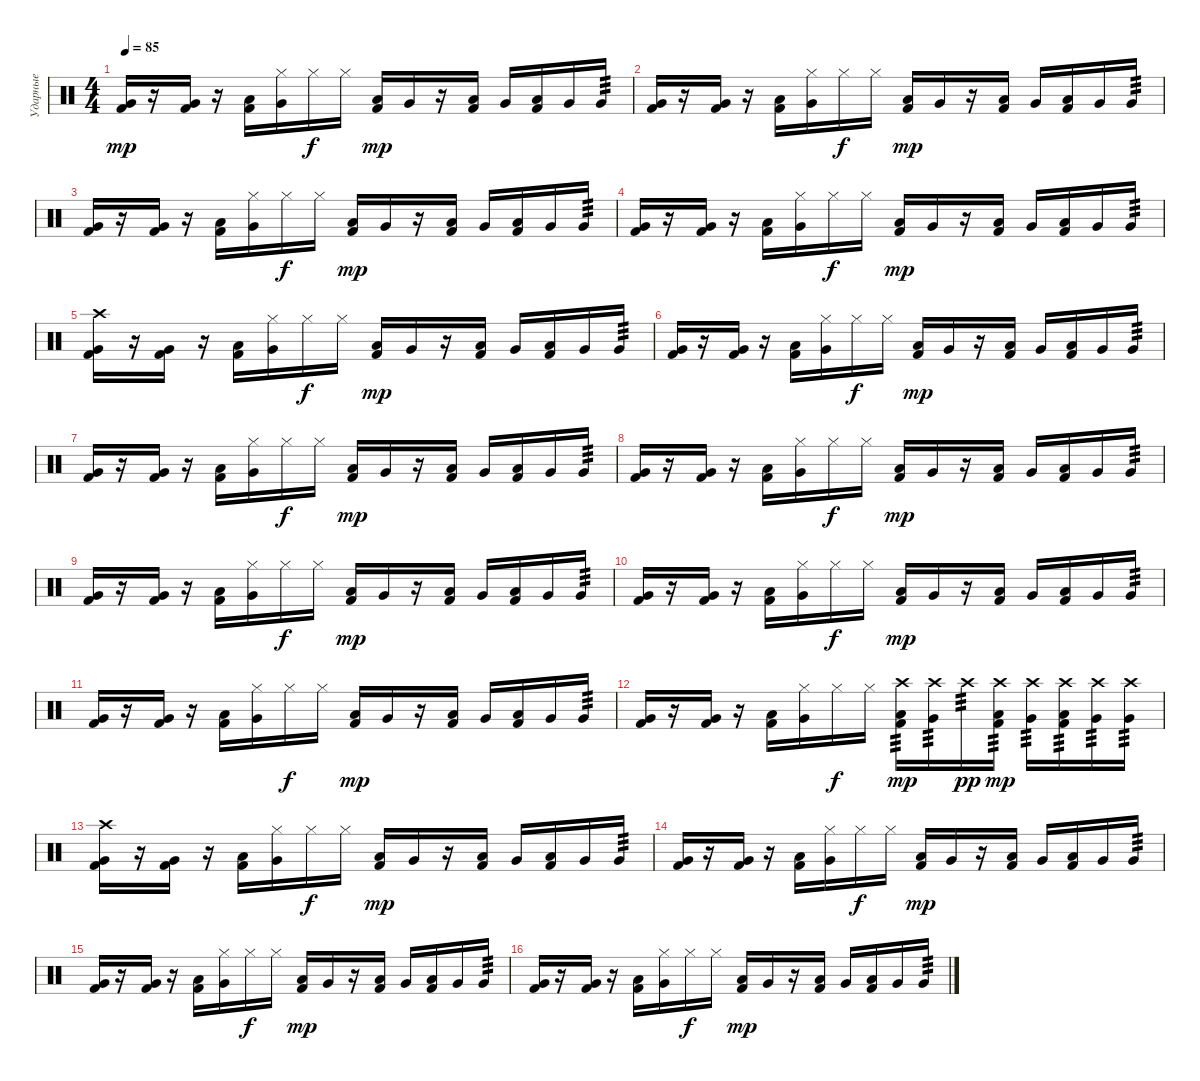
\track ("Ударные" "Ударные") {instrument percussion}
\staff {score}
\articulation defaults
\ts (4 4)
\tempo 85
\clef neutral
\ks c
("Very Low Tom (hit)" "Kick (hit) 2").16{dy mp} r.16 ("Very Low Tom (hit)" "Kick (hit) 2").16 r.16 ("Low Tom (hit)" "Kick (hit) 2").16 ("Hi-Hat (closed)" "Very Low Tom (hit)").16 "Hi-Hat (closed)".16{dy f} "Hi-Hat (closed)".16 ("Low Tom (hit)" "Kick (hit) 2").16{dy mp} "Very Low Tom (hit)".16 r.16 ("Low Tom (hit)" "Kick (hit) 2").16 "Very Low Tom (hit)".16 ("Low Tom (hit)" "Kick (hit) 2").16 "Very Low Tom (hit)".16 "Very Low Tom (hit)".16{tp 3} |
("Very Low Tom (hit)" "Kick (hit) 2").16 r.16 ("Very Low Tom (hit)" "Kick (hit) 2").16 r.16 ("Low Tom (hit)" "Kick (hit) 2").16 ("Hi-Hat (closed)" "Very Low Tom (hit)").16 "Hi-Hat (closed)".16{dy f} "Hi-Hat (closed)".16 ("Low Tom (hit)" "Kick (hit) 2").16{dy mp} "Very Low Tom (hit)".16 r.16 ("Low Tom (hit)" "Kick (hit) 2").16 "Very Low Tom (hit)".16 ("Low Tom (hit)" "Kick (hit) 2").16 "Very Low Tom (hit)".16 "Very Low Tom (hit)".16{tp 3} |
("Very Low Tom (hit)" "Kick (hit) 2").16 r.16 ("Very Low Tom (hit)" "Kick (hit) 2").16 r.16 ("Low Tom (hit)" "Kick (hit) 2").16 ("Hi-Hat (closed)" "Very Low Tom (hit)").16 "Hi-Hat (closed)".16{dy f} "Hi-Hat (closed)".16 ("Low Tom (hit)" "Kick (hit) 2").16{dy mp} "Very Low Tom (hit)".16 r.16 ("Low Tom (hit)" "Kick (hit) 2").16 "Very Low Tom (hit)".16 ("Low Tom (hit)" "Kick (hit) 2").16 "Very Low Tom (hit)".16 "Very Low Tom (hit)".16{tp 3} |
("Very Low Tom (hit)" "Kick (hit) 2").16 r.16 ("Very Low Tom (hit)" "Kick (hit) 2").16 r.16 ("Low Tom (hit)" "Kick (hit) 2").16 ("Hi-Hat (closed)" "Very Low Tom (hit)").16 "Hi-Hat (closed)".16{dy f} "Hi-Hat (closed)".16 ("Low Tom (hit)" "Kick (hit) 2").16{dy mp} "Very Low Tom (hit)".16 r.16 ("Low Tom (hit)" "Kick (hit) 2").16 "Very Low Tom (hit)".16 ("Low Tom (hit)" "Kick (hit) 2").16 "Very Low Tom (hit)".16 "Very Low Tom (hit)".16{tp 3} |
("Crash high (hit)" "Very Low Tom (hit)" "Kick (hit) 2").16 r.16 ("Very Low Tom (hit)" "Kick (hit) 2").16 r.16 ("Low Tom (hit)" "Kick (hit) 2").16 ("Hi-Hat (closed)" "Very Low Tom (hit)").16 "Hi-Hat (closed)".16{dy f} "Hi-Hat (closed)".16 ("Low Tom (hit)" "Kick (hit) 2").16{dy mp} "Very Low Tom (hit)".16 r.16 ("Low Tom (hit)" "Kick (hit) 2").16 "Very Low Tom (hit)".16 ("Low Tom (hit)" "Kick (hit) 2").16 "Very Low Tom (hit)".16 "Very Low Tom (hit)".16{tp 3} |
("Very Low Tom (hit)" "Kick (hit) 2").16 r.16 ("Very Low Tom (hit)" "Kick (hit) 2").16 r.16 ("Low Tom (hit)" "Kick (hit) 2").16 ("Hi-Hat (closed)" "Very Low Tom (hit)").16 "Hi-Hat (closed)".16{dy f} "Hi-Hat (closed)".16 ("Low Tom (hit)" "Kick (hit) 2").16{dy mp} "Very Low Tom (hit)".16 r.16 ("Low Tom (hit)" "Kick (hit) 2").16 "Very Low Tom (hit)".16 ("Low Tom (hit)" "Kick (hit) 2").16 "Very Low Tom (hit)".16 "Very Low Tom (hit)".16{tp 3} |
("Very Low Tom (hit)" "Kick (hit) 2").16 r.16 ("Very Low Tom (hit)" "Kick (hit) 2").16 r.16 ("Low Tom (hit)" "Kick (hit) 2").16 ("Hi-Hat (closed)" "Very Low Tom (hit)").16 "Hi-Hat (closed)".16{dy f} "Hi-Hat (closed)".16 ("Low Tom (hit)" "Kick (hit) 2").16{dy mp} "Very Low Tom (hit)".16 r.16 ("Low Tom (hit)" "Kick (hit) 2").16 "Very Low Tom (hit)".16 ("Low Tom (hit)" "Kick (hit) 2").16 "Very Low Tom (hit)".16 "Very Low Tom (hit)".16{tp 3} |
("Very Low Tom (hit)" "Kick (hit) 2").16 r.16 ("Very Low Tom (hit)" "Kick (hit) 2").16 r.16 ("Low Tom (hit)" "Kick (hit) 2").16 ("Hi-Hat (closed)" "Very Low Tom (hit)").16 "Hi-Hat (closed)".16{dy f} "Hi-Hat (closed)".16 ("Low Tom (hit)" "Kick (hit) 2").16{dy mp} "Very Low Tom (hit)".16 r.16 ("Low Tom (hit)" "Kick (hit) 2").16 "Very Low Tom (hit)".16 ("Low Tom (hit)" "Kick (hit) 2").16 "Very Low Tom (hit)".16 "Very Low Tom (hit)".16{tp 3} |
("Very Low Tom (hit)" "Kick (hit) 2").16 r.16 ("Very Low Tom (hit)" "Kick (hit) 2").16 r.16 ("Low Tom (hit)" "Kick (hit) 2").16 ("Hi-Hat (closed)" "Very Low Tom (hit)").16 "Hi-Hat (closed)".16{dy f} "Hi-Hat (closed)".16 ("Low Tom (hit)" "Kick (hit) 2").16{dy mp} "Very Low Tom (hit)".16 r.16 ("Low Tom (hit)" "Kick (hit) 2").16 "Very Low Tom (hit)".16 ("Low Tom (hit)" "Kick (hit) 2").16 "Very Low Tom (hit)".16 "Very Low Tom (hit)".16{tp 3} |
("Very Low Tom (hit)" "Kick (hit) 2").16 r.16 ("Very Low Tom (hit)" "Kick (hit) 2").16 r.16 ("Low Tom (hit)" "Kick (hit) 2").16 ("Hi-Hat (closed)" "Very Low Tom (hit)").16 "Hi-Hat (closed)".16{dy f} "Hi-Hat (closed)".16 ("Low Tom (hit)" "Kick (hit) 2").16{dy mp} "Very Low Tom (hit)".16 r.16 ("Low Tom (hit)" "Kick (hit) 2").16 "Very Low Tom (hit)".16 ("Low Tom (hit)" "Kick (hit) 2").16 "Very Low Tom (hit)".16 "Very Low Tom (hit)".16{tp 3} |
("Very Low Tom (hit)" "Kick (hit) 2").16 r.16 ("Very Low Tom (hit)" "Kick (hit) 2").16 r.16 ("Low Tom (hit)" "Kick (hit) 2").16 ("Hi-Hat (closed)" "Very Low Tom (hit)").16 "Hi-Hat (closed)".16{dy f} "Hi-Hat (closed)".16 ("Low Tom (hit)" "Kick (hit) 2").16{dy mp} "Very Low Tom (hit)".16 r.16 ("Low Tom (hit)" "Kick (hit) 2").16 "Very Low Tom (hit)".16 ("Low Tom (hit)" "Kick (hit) 2").16 "Very Low Tom (hit)".16 "Very Low Tom (hit)".16{tp 3} |
("Very Low Tom (hit)" "Kick (hit) 2").16 r.16 ("Very Low Tom (hit)" "Kick (hit) 2").16 r.16 ("Low Tom (hit)" "Kick (hit) 2").16 ("Hi-Hat (closed)" "Very Low Tom (hit)").16 "Hi-Hat (closed)".16{dy f} "Hi-Hat (closed)".16 ("Crash high (hit)" "Low Tom (hit)" "Kick (hit) 2").16{tp 3 dy mp} ("Crash high (hit)" "Very Low Tom (hit)").16{tp 3} "Crash high (hit)".16{tp 3 dy pp} ("Crash high (hit)" "Low Tom (hit)" "Kick (hit) 2").16{tp 3 dy mp} ("Crash high (hit)" "Very Low Tom (hit)").16{tp 3} ("Crash high (hit)" "Low Tom (hit)" "Kick (hit) 2").16{tp 3} ("Crash high (hit)" "Very Low Tom (hit)").16{tp 3} ("Crash high (hit)" "Very Low Tom (hit)").16{tp 3} |
("Crash high (hit)" "Very Low Tom (hit)" "Kick (hit) 2").16 r.16 ("Very Low Tom (hit)" "Kick (hit) 2").16 r.16 ("Low Tom (hit)" "Kick (hit) 2").16 ("Hi-Hat (closed)" "Very Low Tom (hit)").16 "Hi-Hat (closed)".16{dy f} "Hi-Hat (closed)".16 ("Low Tom (hit)" "Kick (hit) 2").16{dy mp} "Very Low Tom (hit)".16 r.16 ("Low Tom (hit)" "Kick (hit) 2").16 "Very Low Tom (hit)".16 ("Low Tom (hit)" "Kick (hit) 2").16 "Very Low Tom (hit)".16 "Very Low Tom (hit)".16{tp 3} |
("Very Low Tom (hit)" "Kick (hit) 2").16 r.16 ("Very Low Tom (hit)" "Kick (hit) 2").16 r.16 ("Low Tom (hit)" "Kick (hit) 2").16 ("Hi-Hat (closed)" "Very Low Tom (hit)").16 "Hi-Hat (closed)".16{dy f} "Hi-Hat (closed)".16 ("Low Tom (hit)" "Kick (hit) 2").16{dy mp} "Very Low Tom (hit)".16 r.16 ("Low Tom (hit)" "Kick (hit) 2").16 "Very Low Tom (hit)".16 ("Low Tom (hit)" "Kick (hit) 2").16 "Very Low Tom (hit)".16 "Very Low Tom (hit)".16{tp 3} |
("Very Low Tom (hit)" "Kick (hit) 2").16 r.16 ("Very Low Tom (hit)" "Kick (hit) 2").16 r.16 ("Low Tom (hit)" "Kick (hit) 2").16 ("Hi-Hat (closed)" "Very Low Tom (hit)").16 "Hi-Hat (closed)".16{dy f} "Hi-Hat (closed)".16 ("Low Tom (hit)" "Kick (hit) 2").16{dy mp} "Very Low Tom (hit)".16 r.16 ("Low Tom (hit)" "Kick (hit) 2").16 "Very Low Tom (hit)".16 ("Low Tom (hit)" "Kick (hit) 2").16 "Very Low Tom (hit)".16 "Very Low Tom (hit)".16{tp 3} |
("Very Low Tom (hit)" "Kick (hit) 2").16 r.16 ("Very Low Tom (hit)" "Kick (hit) 2").16 r.16 ("Low Tom (hit)" "Kick (hit) 2").16 ("Hi-Hat (closed)" "Very Low Tom (hit)").16 "Hi-Hat (closed)".16{dy f} "Hi-Hat (closed)".16 ("Low Tom (hit)" "Kick (hit) 2").16{dy mp} "Very Low Tom (hit)".16 r.16 ("Low Tom (hit)" "Kick (hit) 2").16 "Very Low Tom (hit)".16 ("Low Tom (hit)" "Kick (hit) 2").16 "Very Low Tom (hit)".16 "Very Low Tom (hit)".16{tp 3}
